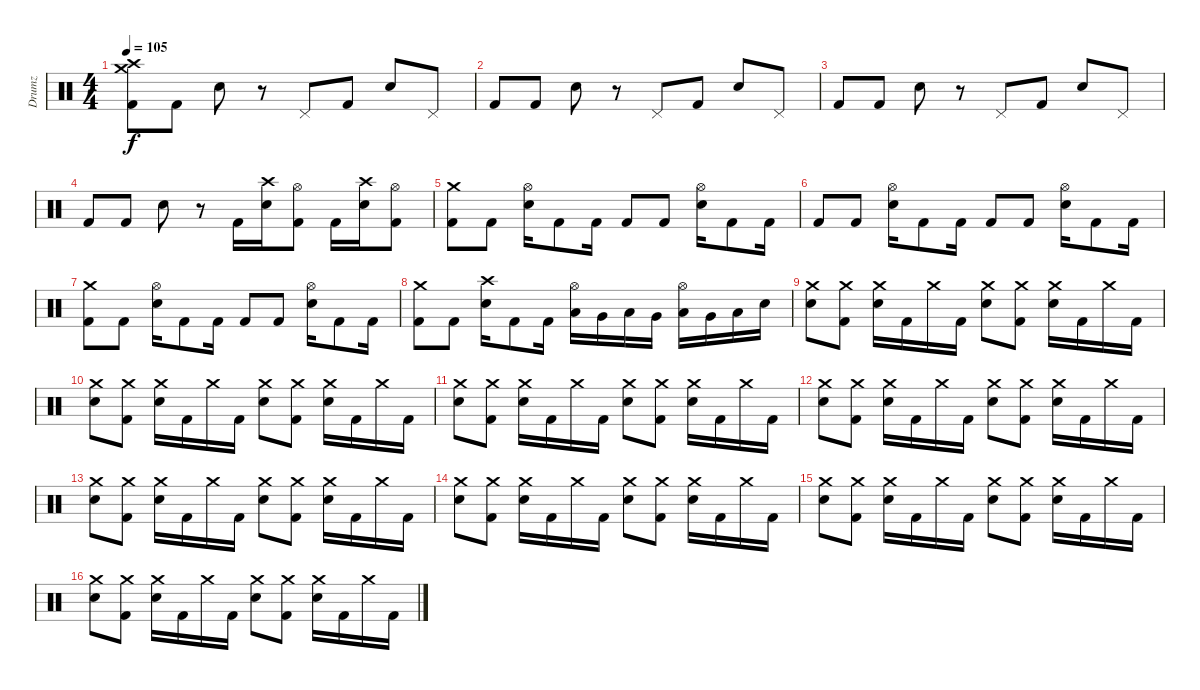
\track ("Drumz" "Drumz") {instrument percussion}
\staff {score}
\articulation defaults
\ts (4 4)
\tempo 105
\clef neutral
\ks c
("Crash medium (hit)" "Crash high (hit)" "Kick (hit) 2").8{dy f} "Kick (hit) 2".8 "Electric Snare (hit)".8 r.8 "Pedal Hi-Hat (hit)".8 "Kick (hit) 2".8 "Electric Snare (hit)".8 "Pedal Hi-Hat (hit)".8 |
"Kick (hit) 2".8 "Kick (hit) 2".8 "Electric Snare (hit)".8 r.8 "Pedal Hi-Hat (hit)".8 "Kick (hit) 2".8 "Electric Snare (hit)".8 "Pedal Hi-Hat (hit)".8 |
"Kick (hit) 2".8 "Kick (hit) 2".8 "Electric Snare (hit)".8 r.8 "Pedal Hi-Hat (hit)".8 "Kick (hit) 2".8 "Electric Snare (hit)".8 "Pedal Hi-Hat (hit)".8 |
"Kick (hit) 2".8 "Kick (hit) 2".8 "Electric Snare (hit)".8 r.8 "Kick (hit) 2".16 ("Crash high (hit)" "Electric Snare (hit)").16 ("Hi-Hat (open)" "Kick (hit) 2").8 "Kick (hit) 2".16 ("Crash high (hit)" "Electric Snare (hit)").16 ("Hi-Hat (open)" "Kick (hit) 2").8 |
("Crash medium (hit)" "Kick (hit) 2").8 "Kick (hit) 2".8 ("Hi-Hat (open)" "Electric Snare (hit)").16 "Kick (hit) 2".8 "Kick (hit) 2".16 "Kick (hit) 2".8 "Kick (hit) 2".8 ("Hi-Hat (open)" "Electric Snare (hit)").16 "Kick (hit) 2".8 "Kick (hit) 2".16 |
"Kick (hit) 2".8 "Kick (hit) 2".8 ("Hi-Hat (open)" "Electric Snare (hit)").16 "Kick (hit) 2".8 "Kick (hit) 2".16 "Kick (hit) 2".8 "Kick (hit) 2".8 ("Hi-Hat (open)" "Electric Snare (hit)").16 "Kick (hit) 2".8 "Kick (hit) 2".16 |
("Crash medium (hit)" "Kick (hit) 2").8 "Kick (hit) 2".8 ("Hi-Hat (open)" "Electric Snare (hit)").16 "Kick (hit) 2".8 "Kick (hit) 2".16 "Kick (hit) 2".8 "Kick (hit) 2".8 ("Hi-Hat (open)" "Electric Snare (hit)").16 "Kick (hit) 2".8 "Kick (hit) 2".16 |
("Crash medium (hit)" "Kick (hit) 2").8 "Kick (hit) 2".8 ("Crash high (hit)" "Electric Snare (hit)").16 "Kick (hit) 2".8 "Kick (hit) 2".16 ("Hi-Hat (open)" "Low Tom (hit)").16 "Very Low Tom (hit)".16 "Low Floor Tom (hit)".16 "Very Low Tom (hit)".16 ("Hi-Hat (open)" "Low Tom (hit)").16 "Very Low Tom (hit)".16 "Low Floor Tom (hit)".16 "Electric Snare (hit)".16 |
("Crash medium (hit)" "Electric Snare (hit)").8 ("Crash medium (hit)" "Kick (hit) 2").8 ("Crash medium (hit)" "Electric Snare (hit)").16 "Kick (hit) 2".16 "Crash medium (hit)".16 "Kick (hit) 2".16 ("Crash medium (hit)" "Electric Snare (hit)").8 ("Crash medium (hit)" "Kick (hit) 2").8 ("Crash medium (hit)" "Electric Snare (hit)").16 "Kick (hit) 2".16 "Crash medium (hit)".16 "Kick (hit) 2".16 |
("Crash medium (hit)" "Electric Snare (hit)").8 ("Crash medium (hit)" "Kick (hit) 2").8 ("Crash medium (hit)" "Electric Snare (hit)").16 "Kick (hit) 2".16 "Crash medium (hit)".16 "Kick (hit) 2".16 ("Crash medium (hit)" "Electric Snare (hit)").8 ("Crash medium (hit)" "Kick (hit) 2").8 ("Crash medium (hit)" "Electric Snare (hit)").16 "Kick (hit) 2".16 "Crash medium (hit)".16 "Kick (hit) 2".16 |
("Crash medium (hit)" "Electric Snare (hit)").8 ("Crash medium (hit)" "Kick (hit) 2").8 ("Crash medium (hit)" "Electric Snare (hit)").16 "Kick (hit) 2".16 "Crash medium (hit)".16 "Kick (hit) 2".16 ("Crash medium (hit)" "Electric Snare (hit)").8 ("Crash medium (hit)" "Kick (hit) 2").8 ("Crash medium (hit)" "Electric Snare (hit)").16 "Kick (hit) 2".16 "Crash medium (hit)".16 "Kick (hit) 2".16 |
("Crash medium (hit)" "Electric Snare (hit)").8 ("Crash medium (hit)" "Kick (hit) 2").8 ("Crash medium (hit)" "Electric Snare (hit)").16 "Kick (hit) 2".16 "Crash medium (hit)".16 "Kick (hit) 2".16 ("Crash medium (hit)" "Electric Snare (hit)").8 ("Crash medium (hit)" "Kick (hit) 2").8 ("Crash medium (hit)" "Electric Snare (hit)").16 "Kick (hit) 2".16 "Crash medium (hit)".16 "Kick (hit) 2".16 |
("Crash medium (hit)" "Electric Snare (hit)").8 ("Crash medium (hit)" "Kick (hit) 2").8 ("Crash medium (hit)" "Electric Snare (hit)").16 "Kick (hit) 2".16 "Crash medium (hit)".16 "Kick (hit) 2".16 ("Crash medium (hit)" "Electric Snare (hit)").8 ("Crash medium (hit)" "Kick (hit) 2").8 ("Crash medium (hit)" "Electric Snare (hit)").16 "Kick (hit) 2".16 "Crash medium (hit)".16 "Kick (hit) 2".16 |
("Crash medium (hit)" "Electric Snare (hit)").8 ("Crash medium (hit)" "Kick (hit) 2").8 ("Crash medium (hit)" "Electric Snare (hit)").16 "Kick (hit) 2".16 "Crash medium (hit)".16 "Kick (hit) 2".16 ("Crash medium (hit)" "Electric Snare (hit)").8 ("Crash medium (hit)" "Kick (hit) 2").8 ("Crash medium (hit)" "Electric Snare (hit)").16 "Kick (hit) 2".16 "Crash medium (hit)".16 "Kick (hit) 2".16 |
("Crash medium (hit)" "Electric Snare (hit)").8 ("Crash medium (hit)" "Kick (hit) 2").8 ("Crash medium (hit)" "Electric Snare (hit)").16 "Kick (hit) 2".16 "Crash medium (hit)".16 "Kick (hit) 2".16 ("Crash medium (hit)" "Electric Snare (hit)").8 ("Crash medium (hit)" "Kick (hit) 2").8 ("Crash medium (hit)" "Electric Snare (hit)").16 "Kick (hit) 2".16 "Crash medium (hit)".16 "Kick (hit) 2".16 |
("Crash medium (hit)" "Electric Snare (hit)").8 ("Crash medium (hit)" "Kick (hit) 2").8 ("Crash medium (hit)" "Electric Snare (hit)").16 "Kick (hit) 2".16 "Crash medium (hit)".16 "Kick (hit) 2".16 ("Crash medium (hit)" "Electric Snare (hit)").8 ("Crash medium (hit)" "Kick (hit) 2").8 ("Crash medium (hit)" "Electric Snare (hit)").16 "Kick (hit) 2".16 "Crash medium (hit)".16 "Kick (hit) 2".16
